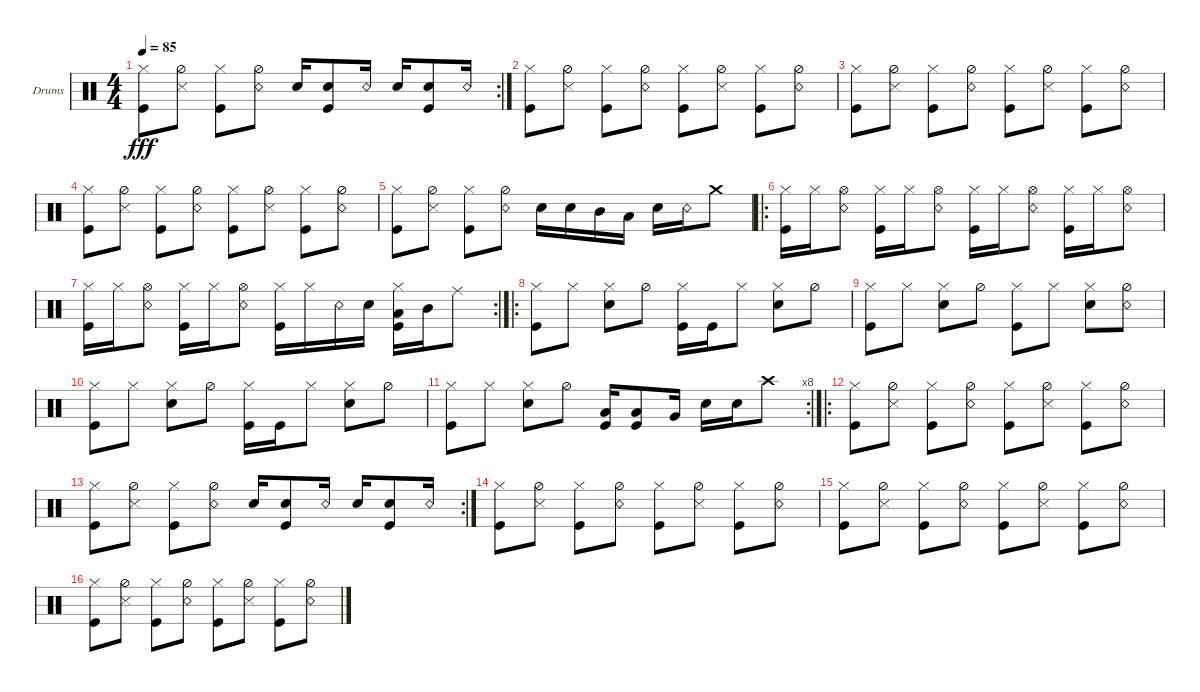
\defaultSystemsLayout 4
\bracketExtendMode groupsimilarinstruments
\firstSystemTrackNameOrientation horizontal
\otherSystemsTrackNameOrientation horizontal
\track ("Drumkit" "Drums") {instrument percussion}
\staff {score}
\articulation defaults
\rc 2
\ts (4 4)
\tempo 85
\clef neutral
\scale
0.333333
\ks c
("Hi-Hat (closed)" "Kick (hit)").8{dy fff} ("Hi-Hat (half)" "Snare (side stick) 3").8 ("Hi-Hat (closed)" "Kick (hit)").8 ("Hi-Hat (half)" "Snare (rim shot)").8 "Snare (hit) 2".16 ("Snare (hit) 2" "Kick (hit)").8 "Snare (rim shot)".16 "Snare (hit) 2".16 ("Snare (hit) 2" "Kick (hit)").8 "Snare (rim shot)".16 |
\scale
0.301075 ("Hi-Hat (closed)" "Kick (hit)").8 ("Hi-Hat (half)" "Snare (side stick) 3").8 ("Hi-Hat (closed)" "Kick (hit)").8 ("Hi-Hat (half)" "Snare (rim shot)").8 ("Hi-Hat (closed)" "Kick (hit)").8 ("Hi-Hat (half)" "Snare (side stick) 3").8 ("Hi-Hat (closed)" "Kick (hit)").8 ("Hi-Hat (half)" "Snare (rim shot)").8 |
\scale
0.333333 ("Hi-Hat (closed)" "Kick (hit)").8 ("Hi-Hat (half)" "Snare (side stick) 3").8 ("Hi-Hat (closed)" "Kick (hit)").8 ("Hi-Hat (half)" "Snare (rim shot)").8 ("Hi-Hat (closed)" "Kick (hit)").8 ("Hi-Hat (half)" "Snare (side stick) 3").8 ("Hi-Hat (closed)" "Kick (hit)").8 ("Hi-Hat (half)" "Snare (rim shot)").8 |
\scale
0.333333 ("Hi-Hat (closed)" "Kick (hit)").8 ("Hi-Hat (half)" "Snare (side stick) 3").8 ("Hi-Hat (closed)" "Kick (hit)").8 ("Hi-Hat (half)" "Snare (rim shot)").8 ("Hi-Hat (closed)" "Kick (hit)").8 ("Hi-Hat (half)" "Snare (side stick) 3").8 ("Hi-Hat (closed)" "Kick (hit)").8 ("Hi-Hat (half)" "Snare (rim shot)").8 |
\scale
0.333333 ("Hi-Hat (closed)" "Kick (hit)").8 ("Hi-Hat (half)" "Snare (side stick) 3").8 ("Hi-Hat (closed)" "Kick (hit)").8 ("Hi-Hat (half)" "Snare (rim shot)").8 "Snare (hit) 2".16 "Snare (hit) 2".16 "Mid Tom (hit)".16 "Low Tom (hit)".16 "Snare (hit) 2".16 "Snare (rim shot)".16 "Crash medium (hit)".8 |
\ro
\scale
0.343434 ("Kick (hit)" "Hi-Hat (closed)").16 "Hi-Hat (closed)".16 ("Hi-Hat (open)" "Snare (rim shot)").8 ("Hi-Hat (closed)" "Kick (hit)").16 "Hi-Hat (closed)".16 ("Hi-Hat (open)" "Snare (rim shot)").8 ("Hi-Hat (closed)" "Kick (hit)").16 "Hi-Hat (closed)".16 ("Hi-Hat (open)" "Snare (rim shot)").8 ("Hi-Hat (closed)" "Kick (hit)").16 "Hi-Hat (closed)".16 ("Hi-Hat (open)" "Snare (rim shot)").8 |
\rc 2
\scale
0.313131 ("Kick (hit)" "Hi-Hat (closed)").16 "Hi-Hat (closed)".16 ("Hi-Hat (open)" "Snare (rim shot)").8 ("Hi-Hat (closed)" "Kick (hit)").16 "Hi-Hat (closed)".16 ("Hi-Hat (open)" "Snare (rim shot)").8 ("Hi-Hat (closed)" "Kick (hit)").16 "Hi-Hat (closed)".16 "Snare (rim shot)".16 "Snare (hit) 2".16 ("Hi-Hat (closed)" "Low Tom (hit)" "Kick (hit)").16 "Mid Tom (hit)".16 "Ride (middle)".8 |
\ro
\scale
0.343434 ("Hi-Hat (closed)" "Kick (hit)").8 "Hi-Hat (closed)".8 ("Hi-Hat (closed)" "Snare (hit) 2").8 "Hi-Hat (half)".8 ("Hi-Hat (closed)" "Kick (hit)").16 "Kick (hit)".16 "Hi-Hat (closed)".8 ("Hi-Hat (closed)" "Snare (hit) 2").8 "Hi-Hat (half)".8 |
\scale
0.321839 ("Hi-Hat (closed)" "Kick (hit)").8 "Hi-Hat (closed)".8 ("Hi-Hat (closed)" "Snare (hit) 2").8 "Hi-Hat (half)".8 ("Hi-Hat (closed)" "Kick (hit)").8 "Hi-Hat (closed)".8 ("Hi-Hat (closed)" "Snare (hit) 2").8 ("Hi-Hat (half)" "Snare (rim shot)").8 |
\scale
0.321839 ("Hi-Hat (closed)" "Kick (hit)").8 "Hi-Hat (closed)".8 ("Hi-Hat (closed)" "Snare (hit) 2").8 "Hi-Hat (half)".8 ("Hi-Hat (closed)" "Kick (hit)").16 "Kick (hit)".16 "Hi-Hat (closed)".8 ("Hi-Hat (closed)" "Snare (hit) 2").8 "Hi-Hat (half)".8 |
\rc 8
\scale
0.356322 ("Hi-Hat (closed)" "Kick (hit)").8 "Hi-Hat (closed)".8 ("Hi-Hat (closed)" "Snare (hit) 2").8 "Hi-Hat (half)".8 ("Low Tom (hit)" "Kick (hit)").16 ("Low Tom (hit)" "Kick (hit)").8 "Very Low Tom (hit)".16 "Snare (hit) 2".16 "Snare (hit) 2".16 "Crash high (hit)".8 |
\ro
\scale
0.365591 ("Hi-Hat (closed)" "Kick (hit)").8 ("Hi-Hat (half)" "Snare (side stick) 3").8 ("Hi-Hat (closed)" "Kick (hit)").8 ("Hi-Hat (half)" "Snare (rim shot)").8 ("Hi-Hat (closed)" "Kick (hit)").8 ("Hi-Hat (half)" "Snare (side stick) 3").8 ("Hi-Hat (closed)" "Kick (hit)").8 ("Hi-Hat (half)" "Snare (rim shot)").8 |
\rc 2
\scale
0.333333 ("Hi-Hat (closed)" "Kick (hit)").8 ("Hi-Hat (half)" "Snare (side stick) 3").8 ("Hi-Hat (closed)" "Kick (hit)").8 ("Hi-Hat (half)" "Snare (rim shot)").8 "Snare (hit) 2".16 ("Snare (hit) 2" "Kick (hit)").8 "Snare (rim shot)".16 "Snare (hit) 2".16 ("Snare (hit) 2" "Kick (hit)").8 "Snare (rim shot)".16 |
\scale
0.301075 ("Hi-Hat (closed)" "Kick (hit)").8 ("Hi-Hat (half)" "Snare (side stick) 3").8 ("Hi-Hat (closed)" "Kick (hit)").8 ("Hi-Hat (half)" "Snare (rim shot)").8 ("Hi-Hat (closed)" "Kick (hit)").8 ("Hi-Hat (half)" "Snare (side stick) 3").8 ("Hi-Hat (closed)" "Kick (hit)").8 ("Hi-Hat (half)" "Snare (rim shot)").8 |
\scale
0.333333 ("Hi-Hat (closed)" "Kick (hit)").8 ("Hi-Hat (half)" "Snare (side stick) 3").8 ("Hi-Hat (closed)" "Kick (hit)").8 ("Hi-Hat (half)" "Snare (rim shot)").8 ("Hi-Hat (closed)" "Kick (hit)").8 ("Hi-Hat (half)" "Snare (side stick) 3").8 ("Hi-Hat (closed)" "Kick (hit)").8 ("Hi-Hat (half)" "Snare (rim shot)").8 |
\scale
0.333333 ("Hi-Hat (closed)" "Kick (hit)").8 ("Hi-Hat (half)" "Snare (side stick) 3").8 ("Hi-Hat (closed)" "Kick (hit)").8 ("Hi-Hat (half)" "Snare (rim shot)").8 ("Hi-Hat (closed)" "Kick (hit)").8 ("Hi-Hat (half)" "Snare (side stick) 3").8 ("Hi-Hat (closed)" "Kick (hit)").8 ("Hi-Hat (half)" "Snare (rim shot)").8
